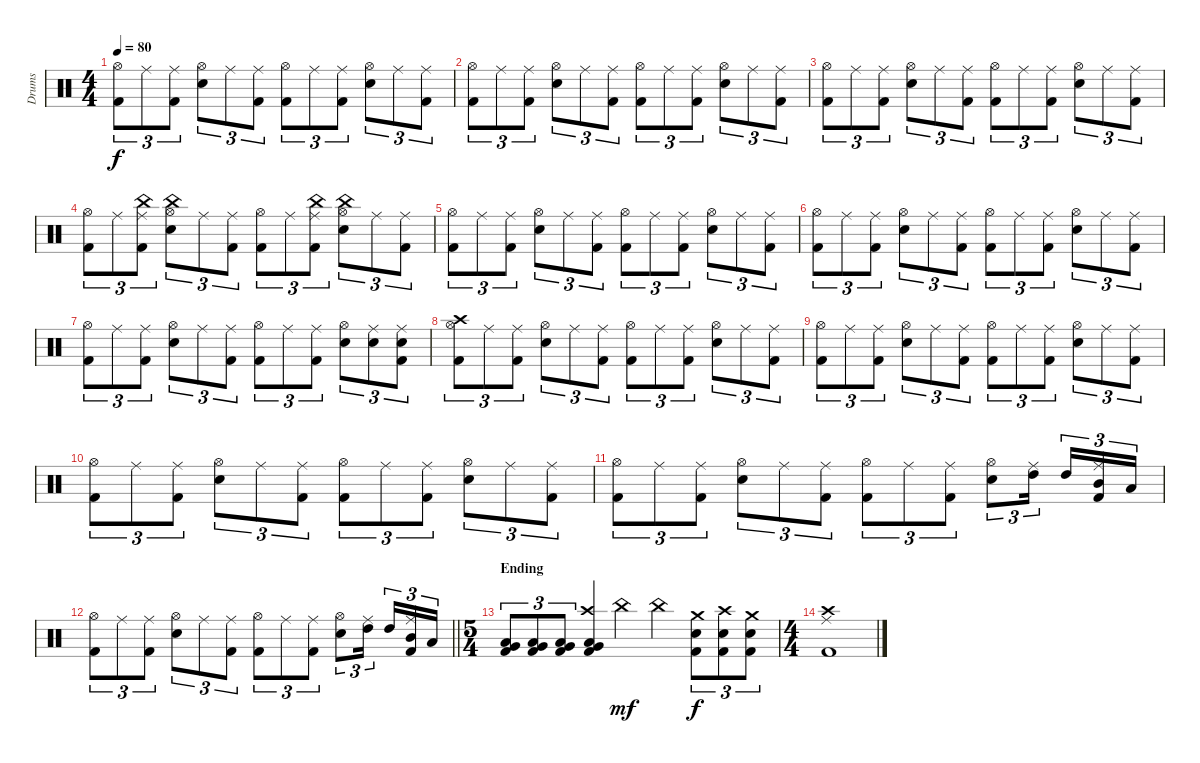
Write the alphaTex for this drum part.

\track ("Drums" "Drums") {instrument percussion}
\staff {score}
\articulation defaults
\ts (4 4)
\tempo 80
\clef neutral
\ks c
("Hi-Hat (open)" "Kick (hit) 2").8{tu (3 2) dy f} "Ride (middle)".8{tu (3 2)} ("Ride (middle)" "Kick (hit) 2").8{tu (3 2)} ("Hi-Hat (open)" "Snare (hit) 2").8{tu (3 2)} "Ride (middle)".8{tu (3 2)} ("Ride (middle)" "Kick (hit) 2").8{tu (3 2)} ("Hi-Hat (open)" "Kick (hit) 2").8{tu (3 2)} "Ride (middle)".8{tu (3 2)} ("Ride (middle)" "Kick (hit) 2").8{tu (3 2)} ("Hi-Hat (open)" "Snare (hit) 2").8{tu (3 2)} "Ride (middle)".8{tu (3 2)} ("Ride (middle)" "Kick (hit) 2").8{tu (3 2)} |
("Hi-Hat (open)" "Kick (hit) 2").8{tu (3 2)} "Ride (middle)".8{tu (3 2)} ("Ride (middle)" "Kick (hit) 2").8{tu (3 2)} ("Hi-Hat (open)" "Snare (hit) 2").8{tu (3 2)} "Ride (middle)".8{tu (3 2)} ("Ride (middle)" "Kick (hit) 2").8{tu (3 2)} ("Hi-Hat (open)" "Kick (hit) 2").8{tu (3 2)} "Ride (middle)".8{tu (3 2)} ("Ride (middle)" "Kick (hit) 2").8{tu (3 2)} ("Hi-Hat (open)" "Snare (hit) 2").8{tu (3 2)} "Ride (middle)".8{tu (3 2)} ("Ride (middle)" "Kick (hit) 2").8{tu (3 2)} |
("Hi-Hat (open)" "Kick (hit) 2").8{tu (3 2)} "Ride (middle)".8{tu (3 2)} ("Ride (middle)" "Kick (hit) 2").8{tu (3 2)} ("Hi-Hat (open)" "Snare (hit) 2").8{tu (3 2)} "Ride (middle)".8{tu (3 2)} ("Ride (middle)" "Kick (hit) 2").8{tu (3 2)} ("Hi-Hat (open)" "Kick (hit) 2").8{tu (3 2)} "Ride (middle)".8{tu (3 2)} ("Ride (middle)" "Kick (hit) 2").8{tu (3 2)} ("Hi-Hat (open)" "Snare (hit) 2").8{tu (3 2)} "Ride (middle)".8{tu (3 2)} ("Ride (middle)" "Kick (hit) 2").8{tu (3 2)} |
("Hi-Hat (open)" "Kick (hit) 2").8{tu (3 2)} "Ride (middle)".8{tu (3 2)} ("China (hit)" "Ride (middle)" "Kick (hit) 2").8{tu (3 2)} ("China (hit)" "Hi-Hat (open)" "Snare (hit) 2").8{tu (3 2)} "Ride (middle)".8{tu (3 2)} ("Ride (middle)" "Kick (hit) 2").8{tu (3 2)} ("Hi-Hat (open)" "Kick (hit) 2").8{tu (3 2)} "Ride (middle)".8{tu (3 2)} ("China (hit)" "Ride (middle)" "Kick (hit) 2").8{tu (3 2)} ("China (hit)" "Hi-Hat (open)" "Snare (hit) 2").8{tu (3 2)} "Ride (middle)".8{tu (3 2)} ("Ride (middle)" "Kick (hit) 2").8{tu (3 2)} |
("Hi-Hat (open)" "Kick (hit) 2").8{tu (3 2)} "Ride (middle)".8{tu (3 2)} ("Ride (middle)" "Kick (hit) 2").8{tu (3 2)} ("Hi-Hat (open)" "Snare (hit) 2").8{tu (3 2)} "Ride (middle)".8{tu (3 2)} ("Ride (middle)" "Kick (hit) 2").8{tu (3 2)} ("Hi-Hat (open)" "Kick (hit) 2").8{tu (3 2)} "Ride (middle)".8{tu (3 2)} ("Ride (middle)" "Kick (hit) 2").8{tu (3 2)} ("Hi-Hat (open)" "Snare (hit) 2").8{tu (3 2)} "Ride (middle)".8{tu (3 2)} ("Ride (middle)" "Kick (hit) 2").8{tu (3 2)} |
("Hi-Hat (open)" "Kick (hit) 2").8{tu (3 2)} "Ride (middle)".8{tu (3 2)} ("Ride (middle)" "Kick (hit) 2").8{tu (3 2)} ("Hi-Hat (open)" "Snare (hit) 2").8{tu (3 2)} "Ride (middle)".8{tu (3 2)} ("Ride (middle)" "Kick (hit) 2").8{tu (3 2)} ("Hi-Hat (open)" "Kick (hit) 2").8{tu (3 2)} "Ride (middle)".8{tu (3 2)} ("Ride (middle)" "Kick (hit) 2").8{tu (3 2)} ("Hi-Hat (open)" "Snare (hit) 2").8{tu (3 2)} "Ride (middle)".8{tu (3 2)} ("Ride (middle)" "Kick (hit) 2").8{tu (3 2)} |
("Hi-Hat (open)" "Kick (hit) 2").8{tu (3 2)} "Ride (middle)".8{tu (3 2)} ("Ride (middle)" "Kick (hit) 2").8{tu (3 2)} ("Hi-Hat (open)" "Snare (hit) 2").8{tu (3 2)} "Ride (middle)".8{tu (3 2)} ("Ride (middle)" "Kick (hit) 2").8{tu (3 2)} ("Hi-Hat (open)" "Kick (hit) 2").8{tu (3 2)} "Ride (middle)".8{tu (3 2)} ("Ride (middle)" "Kick (hit) 2").8{tu (3 2)} ("Hi-Hat (open)" "Snare (hit) 2").8{tu (3 2)} ("Ride (middle)" "Snare (hit) 2").8{tu (3 2)} ("Ride (middle)" "Snare (hit) 2" "Kick (hit) 2").8{tu (3 2)} |
("Crash high (hit)" "Hi-Hat (open)" "Kick (hit) 2").8{tu (3 2)} "Ride (middle)".8{tu (3 2)} ("Ride (middle)" "Kick (hit) 2").8{tu (3 2)} ("Hi-Hat (open)" "Snare (hit) 2").8{tu (3 2)} "Ride (middle)".8{tu (3 2)} ("Ride (middle)" "Kick (hit) 2").8{tu (3 2)} ("Hi-Hat (open)" "Kick (hit) 2").8{tu (3 2)} "Ride (middle)".8{tu (3 2)} ("Ride (middle)" "Kick (hit) 2").8{tu (3 2)} ("Hi-Hat (open)" "Snare (hit) 2").8{tu (3 2)} "Ride (middle)".8{tu (3 2)} ("Ride (middle)" "Kick (hit) 2").8{tu (3 2)} |
("Hi-Hat (open)" "Kick (hit) 2").8{tu (3 2)} "Ride (middle)".8{tu (3 2)} ("Ride (middle)" "Kick (hit) 2").8{tu (3 2)} ("Hi-Hat (open)" "Snare (hit) 2").8{tu (3 2)} "Ride (middle)".8{tu (3 2)} ("Ride (middle)" "Kick (hit) 2").8{tu (3 2)} ("Hi-Hat (open)" "Kick (hit) 2").8{tu (3 2)} "Ride (middle)".8{tu (3 2)} ("Ride (middle)" "Kick (hit) 2").8{tu (3 2)} ("Hi-Hat (open)" "Snare (hit) 2").8{tu (3 2)} "Ride (middle)".8{tu (3 2)} ("Ride (middle)" "Kick (hit) 2").8{tu (3 2)} |
("Hi-Hat (open)" "Kick (hit) 2").8{tu (3 2)} "Ride (middle)".8{tu (3 2)} ("Ride (middle)" "Kick (hit) 2").8{tu (3 2)} ("Hi-Hat (open)" "Snare (hit) 2").8{tu (3 2)} "Ride (middle)".8{tu (3 2)} ("Ride (middle)" "Kick (hit) 2").8{tu (3 2)} ("Hi-Hat (open)" "Kick (hit) 2").8{tu (3 2)} "Ride (middle)".8{tu (3 2)} ("Ride (middle)" "Kick (hit) 2").8{tu (3 2)} ("Hi-Hat (open)" "Snare (hit) 2").8{tu (3 2)} "Ride (middle)".8{tu (3 2)} ("Ride (middle)" "Kick (hit) 2").8{tu (3 2)} |
("Hi-Hat (open)" "Kick (hit) 2").8{tu (3 2)} "Ride (middle)".8{tu (3 2)} ("Ride (middle)" "Kick (hit) 2").8{tu (3 2)} ("Hi-Hat (open)" "Snare (hit) 2").8{tu (3 2)} "Ride (middle)".8{tu (3 2)} ("Ride (middle)" "Kick (hit) 2").8{tu (3 2)} ("Hi-Hat (open)" "Kick (hit) 2").8{tu (3 2)} "Ride (middle)".8{tu (3 2)} ("Ride (middle)" "Kick (hit) 2").8{tu (3 2)} ("Hi-Hat (open)" "Snare (hit) 2").8{tu (3 2)} ("Ride (middle)" "High Tom (hit)").16{tu (3 2) beam splitsecondary} "High Tom (hit)".16{tu (3 2)} ("Ride (middle)" "Mid Tom (hit)" "Kick (hit) 2").16{tu (3 2)} "Low Tom (hit)".16{tu (3 2)} |
\barLineRight lightlight
("Hi-Hat (open)" "Kick (hit) 2").8{tu (3 2)} "Ride (middle)".8{tu (3 2)} ("Ride (middle)" "Kick (hit) 2").8{tu (3 2)} ("Hi-Hat (open)" "Snare (hit) 2").8{tu (3 2)} "Ride (middle)".8{tu (3 2)} ("Ride (middle)" "Kick (hit) 2").8{tu (3 2)} ("Hi-Hat (open)" "Kick (hit) 2").8{tu (3 2)} "Ride (middle)".8{tu (3 2)} ("Ride (middle)" "Kick (hit) 2").8{tu (3 2)} ("Hi-Hat (open)" "Snare (hit) 2").8{tu (3 2)} ("Ride (middle)" "High Tom (hit)").16{tu (3 2) beam splitsecondary} "High Tom (hit)".16{tu (3 2)} ("Ride (middle)" "Mid Tom (hit)" "Kick (hit) 2").16{tu (3 2)} "Low Tom (hit)".16{tu (3 2)} |
\ts (5 4)
\section ("" "Ending")
("Low Tom (hit)" "Very Low Tom (hit)" "Kick (hit) 2").8{tu (3 2)} ("Low Tom (hit)" "Very Low Tom (hit)" "Kick (hit) 2").8{tu (3 2)} ("Low Tom (hit)" "Very Low Tom (hit)" "Kick (hit) 2").8{tu (3 2)} ("Crash high (hit)" "Very Low Tom (hit)" "Low Floor Tom (hit)" "Kick (hit) 2").4 "China (hit)".4{dy mf} "China (hit)".4 ("Crash medium (hit)" "Snare (hit) 2" "Kick (hit) 2").8{tu (3 2) dy f} ("Crash high (hit)" "Snare (hit) 2" "Kick (hit) 2").8{tu (3 2)} ("Crash medium (hit)" "Snare (hit) 2" "Kick (hit) 2").8{tu (3 2)} |
\ts (4 4)
("Crash high (hit)" "Ride (middle)" "Kick (hit) 2").1
